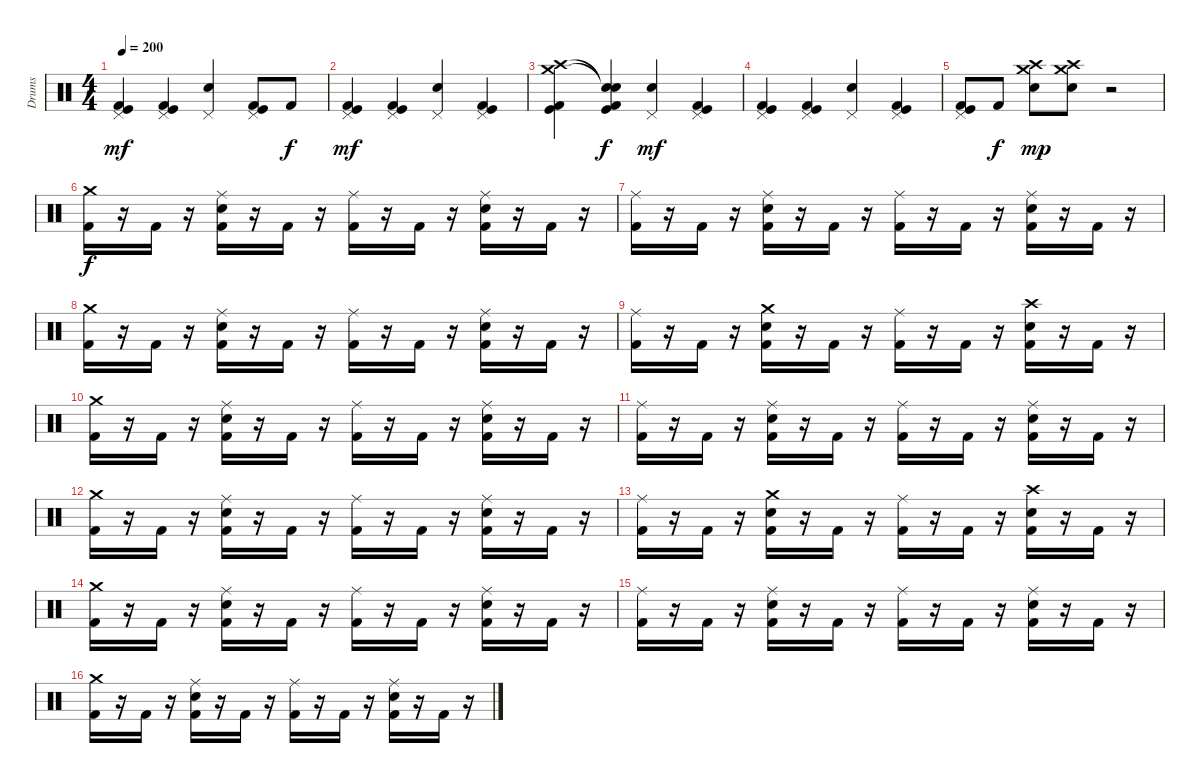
\track ("Drums" "Drums") {instrument percussion}
\staff {score}
\articulation defaults
\ts (4 4)
\tempo 200
\clef neutral
\ks c
("Pedal Hi-Hat (hit)" "Kick (hit)" "Kick (hit) 2").4{dy mf} ("Pedal Hi-Hat (hit)" "Kick (hit)" "Kick (hit) 2").4 ("Pedal Hi-Hat (hit)" "Snare (hit) 2").4 ("Pedal Hi-Hat (hit)" "Kick (hit)" "Kick (hit) 2").8 "Kick (hit) 2".8{dy f} |
("Pedal Hi-Hat (hit)" "Kick (hit)" "Kick (hit) 2").4{dy mf} ("Pedal Hi-Hat (hit)" "Kick (hit)" "Kick (hit) 2").4 ("Pedal Hi-Hat (hit)" "Snare (hit) 2").4 ("Pedal Hi-Hat (hit)" "Kick (hit)" "Kick (hit) 2").4 |
("Crash high (hit)" "Crash medium (hit)" "Kick (hit)" "Kick (hit) 2").4 ("Snare (hit)"{t} "Snare (hit)"{t} "Kick (hit)" "Kick (hit) 2").4{dy f} ("Pedal Hi-Hat (hit)" "Snare (hit) 2").4{dy mf} ("Pedal Hi-Hat (hit)" "Kick (hit)" "Kick (hit) 2").4 |
("Pedal Hi-Hat (hit)" "Kick (hit)" "Kick (hit) 2").4 ("Pedal Hi-Hat (hit)" "Kick (hit)" "Kick (hit) 2").4 ("Pedal Hi-Hat (hit)" "Snare (hit) 2").4 ("Pedal Hi-Hat (hit)" "Kick (hit)" "Kick (hit) 2").4 |
("Pedal Hi-Hat (hit)" "Kick (hit)" "Kick (hit) 2").8 "Kick (hit) 2".8{dy f} ("Crash high (hit)" "Crash medium (hit)" "Snare (hit) 2").8{dy mp} ("Crash high (hit)" "Crash medium (hit)" "Snare (hit) 2").8 r.2 |
("Crash medium (hit)" "Kick (hit) 2").16{dy f} r.16 "Kick (hit) 2".16 r.16 ("Ride (middle)" "Snare (hit) 2" "Kick (hit) 2").16 r.16 "Kick (hit) 2".16 r.16 ("Ride (middle)" "Kick (hit) 2").16 r.16 "Kick (hit) 2".16 r.16 ("Ride (middle)" "Snare (hit) 2" "Kick (hit) 2").16 r.16 "Kick (hit) 2".16 r.16 |
("Ride (middle)" "Kick (hit) 2").16 r.16 "Kick (hit) 2".16 r.16 ("Ride (middle)" "Snare (hit) 2" "Kick (hit) 2").16 r.16 "Kick (hit) 2".16 r.16 ("Ride (middle)" "Kick (hit) 2").16 r.16 "Kick (hit) 2".16 r.16 ("Ride (middle)" "Snare (hit) 2" "Kick (hit) 2").16 r.16 "Kick (hit) 2".16 r.16 |
("Crash medium (hit)" "Kick (hit) 2").16 r.16 "Kick (hit) 2".16 r.16 ("Ride (middle)" "Snare (hit) 2" "Kick (hit) 2").16 r.16 "Kick (hit) 2".16 r.16 ("Ride (middle)" "Kick (hit) 2").16 r.16 "Kick (hit) 2".16 r.16 ("Ride (middle)" "Snare (hit) 2" "Kick (hit) 2").16 r.16 "Kick (hit) 2".16 r.16 |
("Ride (middle)" "Kick (hit) 2").16 r.16 "Kick (hit) 2".16 r.16 ("Crash medium (hit)" "Snare (hit) 2" "Kick (hit) 2").16 r.16 "Kick (hit) 2".16 r.16 ("Ride (middle)" "Kick (hit) 2").16 r.16 "Kick (hit) 2".16 r.16 ("Crash high (hit)" "Snare (hit) 2" "Kick (hit) 2").16 r.16 "Kick (hit) 2".16 r.16 |
("Crash medium (hit)" "Kick (hit) 2").16 r.16 "Kick (hit) 2".16 r.16 ("Ride (middle)" "Snare (hit) 2" "Kick (hit) 2").16 r.16 "Kick (hit) 2".16 r.16 ("Ride (middle)" "Kick (hit) 2").16 r.16 "Kick (hit) 2".16 r.16 ("Ride (middle)" "Snare (hit) 2" "Kick (hit) 2").16 r.16 "Kick (hit) 2".16 r.16 |
("Ride (middle)" "Kick (hit) 2").16 r.16 "Kick (hit) 2".16 r.16 ("Ride (middle)" "Snare (hit) 2" "Kick (hit) 2").16 r.16 "Kick (hit) 2".16 r.16 ("Ride (middle)" "Kick (hit) 2").16 r.16 "Kick (hit) 2".16 r.16 ("Ride (middle)" "Snare (hit) 2" "Kick (hit) 2").16 r.16 "Kick (hit) 2".16 r.16 |
("Crash medium (hit)" "Kick (hit) 2").16 r.16 "Kick (hit) 2".16 r.16 ("Ride (middle)" "Snare (hit) 2" "Kick (hit) 2").16 r.16 "Kick (hit) 2".16 r.16 ("Ride (middle)" "Kick (hit) 2").16 r.16 "Kick (hit) 2".16 r.16 ("Ride (middle)" "Snare (hit) 2" "Kick (hit) 2").16 r.16 "Kick (hit) 2".16 r.16 |
("Ride (middle)" "Kick (hit) 2").16 r.16 "Kick (hit) 2".16 r.16 ("Crash medium (hit)" "Snare (hit) 2" "Kick (hit) 2").16 r.16 "Kick (hit) 2".16 r.16 ("Ride (middle)" "Kick (hit) 2").16 r.16 "Kick (hit) 2".16 r.16 ("Crash high (hit)" "Snare (hit) 2" "Kick (hit) 2").16 r.16 "Kick (hit) 2".16 r.16 |
("Crash medium (hit)" "Kick (hit) 2").16 r.16 "Kick (hit) 2".16 r.16 ("Ride (middle)" "Snare (hit) 2" "Kick (hit) 2").16 r.16 "Kick (hit) 2".16 r.16 ("Ride (middle)" "Kick (hit) 2").16 r.16 "Kick (hit) 2".16 r.16 ("Ride (middle)" "Snare (hit) 2" "Kick (hit) 2").16 r.16 "Kick (hit) 2".16 r.16 |
("Ride (middle)" "Kick (hit) 2").16 r.16 "Kick (hit) 2".16 r.16 ("Ride (middle)" "Snare (hit) 2" "Kick (hit) 2").16 r.16 "Kick (hit) 2".16 r.16 ("Ride (middle)" "Kick (hit) 2").16 r.16 "Kick (hit) 2".16 r.16 ("Ride (middle)" "Snare (hit) 2" "Kick (hit) 2").16 r.16 "Kick (hit) 2".16 r.16 |
("Crash medium (hit)" "Kick (hit) 2").16 r.16 "Kick (hit) 2".16 r.16 ("Ride (middle)" "Snare (hit) 2" "Kick (hit) 2").16 r.16 "Kick (hit) 2".16 r.16 ("Ride (middle)" "Kick (hit) 2").16 r.16 "Kick (hit) 2".16 r.16 ("Ride (middle)" "Snare (hit) 2" "Kick (hit) 2").16 r.16 "Kick (hit) 2".16 r.16
